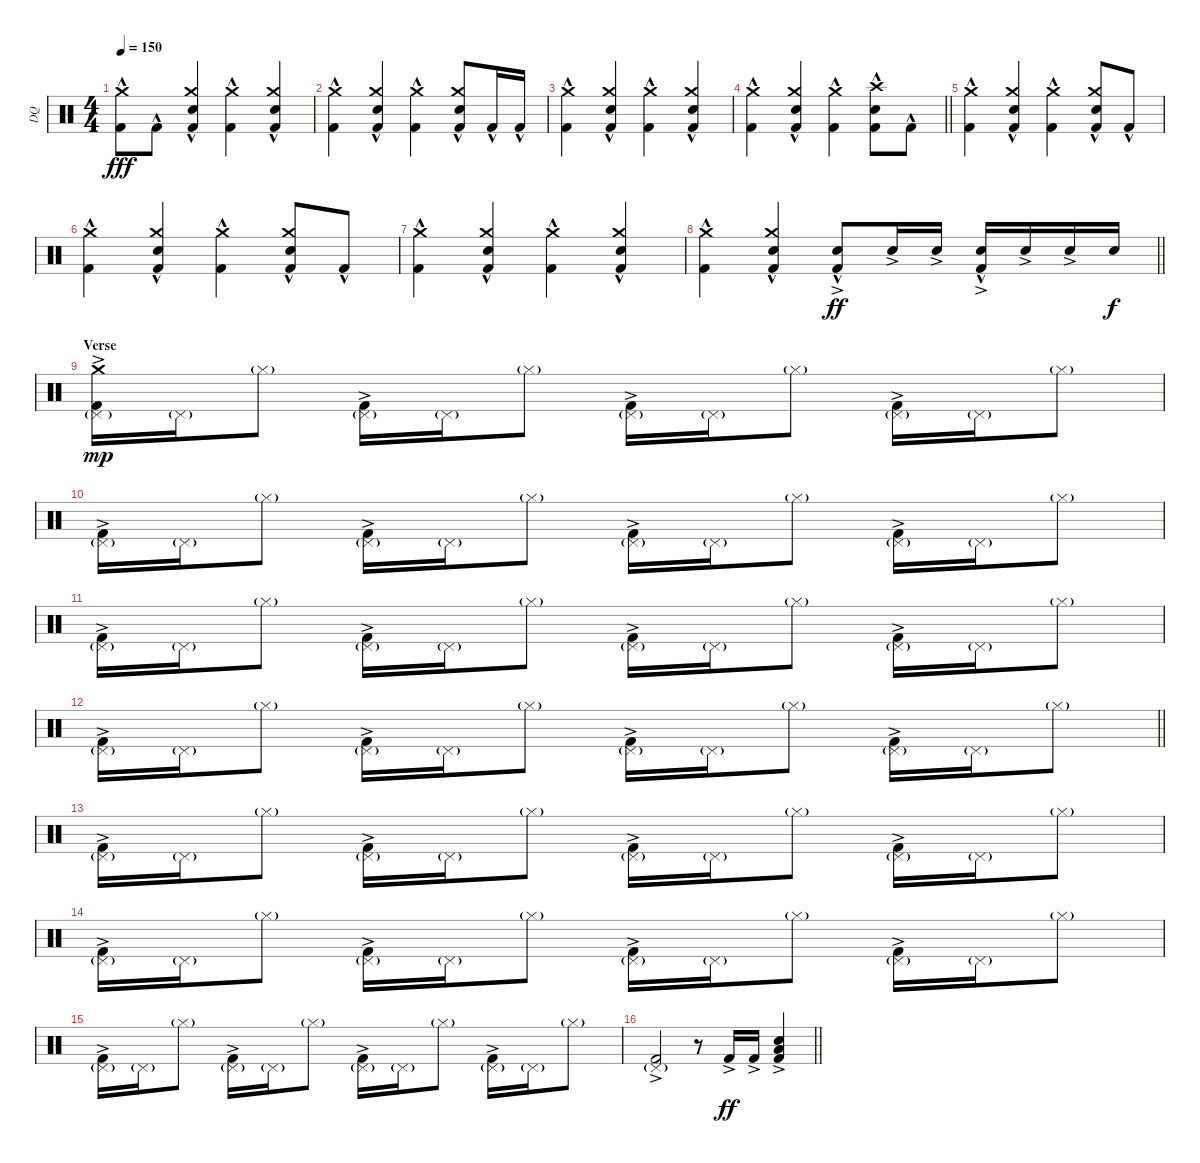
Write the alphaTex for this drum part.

\track ("DQ" "DQ") {instrument percussion}
\staff {score}
\articulation defaults
\ts (4 4)
\section ("" "")
\tempo 150
\clef neutral
\ks c
("Kick (hit) 2"{hac} "Crash medium (hit)").8{dy fff} "Kick (hit) 2"{hac}.8 ("Kick (hit) 2"{hac} "Snare (hit) 2"{hac} "Crash medium (hit)").4 ("Kick (hit) 2"{hac} "Crash medium (hit)").4 ("Kick (hit) 2"{hac} "Snare (hit) 2"{hac} "Crash medium (hit)").4 |
("Kick (hit) 2"{hac} "Crash medium (hit)").4 ("Kick (hit) 2"{hac} "Snare (hit) 2"{hac} "Crash medium (hit)").4 ("Kick (hit) 2"{hac} "Crash medium (hit)").4 ("Kick (hit) 2" "Snare (hit) 2"{hac} "Crash medium (hit)").8 "Kick (hit) 2"{hac}.16 "Kick (hit) 2"{hac}.16 |
("Kick (hit) 2"{hac} "Crash medium (hit)").4 ("Kick (hit) 2"{hac} "Snare (hit) 2"{hac} "Crash medium (hit)").4 ("Kick (hit) 2"{hac} "Crash medium (hit)").4 ("Kick (hit) 2" "Snare (hit) 2"{hac} "Crash medium (hit)").4 |
\barLineRight lightlight
("Kick (hit) 2"{hac} "Crash medium (hit)").4 ("Kick (hit) 2"{hac} "Snare (hit) 2"{hac} "Crash medium (hit)").4 ("Kick (hit) 2"{hac} "Crash medium (hit)").4 ("Kick (hit) 2" "Snare (hit) 2"{hac} "Crash high (hit)").8 "Kick (hit) 2"{hac}.8 |
\section ("" "")
("Kick (hit) 2"{hac} "Crash medium (hit)").4 ("Kick (hit) 2"{hac} "Snare (hit) 2"{hac} "Crash medium (hit)").4 ("Kick (hit) 2"{hac} "Crash medium (hit)").4 ("Kick (hit) 2" "Snare (hit) 2"{hac} "Crash medium (hit)").8 "Kick (hit) 2"{hac}.8 |
("Kick (hit) 2"{hac} "Crash medium (hit)").4 ("Kick (hit) 2"{hac} "Snare (hit) 2"{hac} "Crash medium (hit)").4 ("Kick (hit) 2"{hac} "Crash medium (hit)").4 ("Kick (hit) 2" "Snare (hit) 2"{hac} "Crash medium (hit)").8 "Kick (hit) 2"{hac}.8 |
("Kick (hit) 2"{hac} "Crash medium (hit)").4 ("Kick (hit) 2"{hac} "Snare (hit) 2"{hac} "Crash medium (hit)").4 ("Kick (hit) 2"{hac} "Crash medium (hit)").4 ("Kick (hit) 2" "Snare (hit) 2"{hac} "Crash medium (hit)").4 |
\barLineRight lightlight
("Kick (hit) 2"{hac} "Crash medium (hit)").4 ("Kick (hit) 2"{hac} "Snare (hit) 2"{hac} "Crash medium (hit)").4 ("Kick (hit) 2"{hac} "Snare (hit) 2"{ac}).8{dy ff} "Snare (hit) 2"{ac}.16 "Snare (hit) 2"{ac}.16 ("Kick (hit) 2"{hac} "Snare (hit) 2"{ac}).16 "Snare (hit) 2"{ac}.16 "Snare (hit) 2"{ac}.16 "Snare (hit) 2".16{dy f} |
\section ("" "Verse")
("Kick (hit) 2"{ac} "Pedal Hi-Hat (hit)"{g} "Crash medium (hit)").16{dy mp} "Pedal Hi-Hat (hit)"{g}.16 "Hi-Hat (closed)"{g}.8 ("Kick (hit) 2"{ac} "Pedal Hi-Hat (hit)"{g}).16 "Pedal Hi-Hat (hit)"{g}.16 "Hi-Hat (closed)"{g}.8 ("Kick (hit) 2"{ac} "Pedal Hi-Hat (hit)"{g}).16 "Pedal Hi-Hat (hit)"{g}.16 "Hi-Hat (closed)"{g}.8 ("Kick (hit) 2"{ac} "Pedal Hi-Hat (hit)"{g}).16 "Pedal Hi-Hat (hit)"{g}.16 "Hi-Hat (closed)"{g}.8 |
("Kick (hit) 2"{ac} "Pedal Hi-Hat (hit)"{g}).16 "Pedal Hi-Hat (hit)"{g}.16 "Hi-Hat (closed)"{g}.8 ("Kick (hit) 2"{ac} "Pedal Hi-Hat (hit)"{g}).16 "Pedal Hi-Hat (hit)"{g}.16 "Hi-Hat (closed)"{g}.8 ("Kick (hit) 2"{ac} "Pedal Hi-Hat (hit)"{g}).16 "Pedal Hi-Hat (hit)"{g}.16 "Hi-Hat (closed)"{g}.8 ("Kick (hit) 2"{ac} "Pedal Hi-Hat (hit)"{g}).16 "Pedal Hi-Hat (hit)"{g}.16 "Hi-Hat (closed)"{g}.8 |
("Kick (hit) 2"{ac} "Pedal Hi-Hat (hit)"{g}).16 "Pedal Hi-Hat (hit)"{g}.16 "Hi-Hat (closed)"{g}.8 ("Kick (hit) 2"{ac} "Pedal Hi-Hat (hit)"{g}).16 "Pedal Hi-Hat (hit)"{g}.16 "Hi-Hat (closed)"{g}.8 ("Kick (hit) 2"{ac} "Pedal Hi-Hat (hit)"{g}).16 "Pedal Hi-Hat (hit)"{g}.16 "Hi-Hat (closed)"{g}.8 ("Kick (hit) 2"{ac} "Pedal Hi-Hat (hit)"{g}).16 "Pedal Hi-Hat (hit)"{g}.16 "Hi-Hat (closed)"{g}.8 |
\barLineRight lightlight
("Kick (hit) 2"{ac} "Pedal Hi-Hat (hit)"{g}).16 "Pedal Hi-Hat (hit)"{g}.16 "Hi-Hat (closed)"{g}.8 ("Kick (hit) 2"{ac} "Pedal Hi-Hat (hit)"{g}).16 "Pedal Hi-Hat (hit)"{g}.16 "Hi-Hat (closed)"{g}.8 ("Kick (hit) 2"{ac} "Pedal Hi-Hat (hit)"{g}).16 "Pedal Hi-Hat (hit)"{g}.16 "Hi-Hat (closed)"{g}.8 ("Kick (hit) 2"{ac} "Pedal Hi-Hat (hit)"{g}).16 "Pedal Hi-Hat (hit)"{g}.16 "Hi-Hat (closed)"{g}.8 |
\section ("" "")
("Kick (hit) 2"{ac} "Pedal Hi-Hat (hit)"{g}).16 "Pedal Hi-Hat (hit)"{g}.16 "Hi-Hat (closed)"{g}.8 ("Kick (hit) 2"{ac} "Pedal Hi-Hat (hit)"{g}).16 "Pedal Hi-Hat (hit)"{g}.16 "Hi-Hat (closed)"{g}.8 ("Kick (hit) 2"{ac} "Pedal Hi-Hat (hit)"{g}).16 "Pedal Hi-Hat (hit)"{g}.16 "Hi-Hat (closed)"{g}.8 ("Kick (hit) 2"{ac} "Pedal Hi-Hat (hit)"{g}).16 "Pedal Hi-Hat (hit)"{g}.16 "Hi-Hat (closed)"{g}.8 |
("Kick (hit) 2"{ac} "Pedal Hi-Hat (hit)"{g}).16 "Pedal Hi-Hat (hit)"{g}.16 "Hi-Hat (closed)"{g}.8 ("Kick (hit) 2"{ac} "Pedal Hi-Hat (hit)"{g}).16 "Pedal Hi-Hat (hit)"{g}.16 "Hi-Hat (closed)"{g}.8 ("Kick (hit) 2"{ac} "Pedal Hi-Hat (hit)"{g}).16 "Pedal Hi-Hat (hit)"{g}.16 "Hi-Hat (closed)"{g}.8 ("Kick (hit) 2"{ac} "Pedal Hi-Hat (hit)"{g}).16 "Pedal Hi-Hat (hit)"{g}.16 "Hi-Hat (closed)"{g}.8 |
("Kick (hit) 2"{ac} "Pedal Hi-Hat (hit)"{g}).16 "Pedal Hi-Hat (hit)"{g}.16 "Hi-Hat (closed)"{g}.8 ("Kick (hit) 2"{ac} "Pedal Hi-Hat (hit)"{g}).16 "Pedal Hi-Hat (hit)"{g}.16 "Hi-Hat (closed)"{g}.8 ("Kick (hit) 2"{ac} "Pedal Hi-Hat (hit)"{g}).16 "Pedal Hi-Hat (hit)"{g}.16 "Hi-Hat (closed)"{g}.8 ("Kick (hit) 2"{ac} "Pedal Hi-Hat (hit)"{g}).16 "Pedal Hi-Hat (hit)"{g}.16 "Hi-Hat (closed)"{g}.8 |
\barLineRight lightlight
("Kick (hit) 2"{ac} "Pedal Hi-Hat (hit)"{g}).2 r.8 "Kick (hit) 2"{ac}.16{dy ff} "Kick (hit) 2"{ac}.16 ("Kick (hit) 2"{ac} "Snare (hit) 2"{ac} "Low Tom (hit)").4
